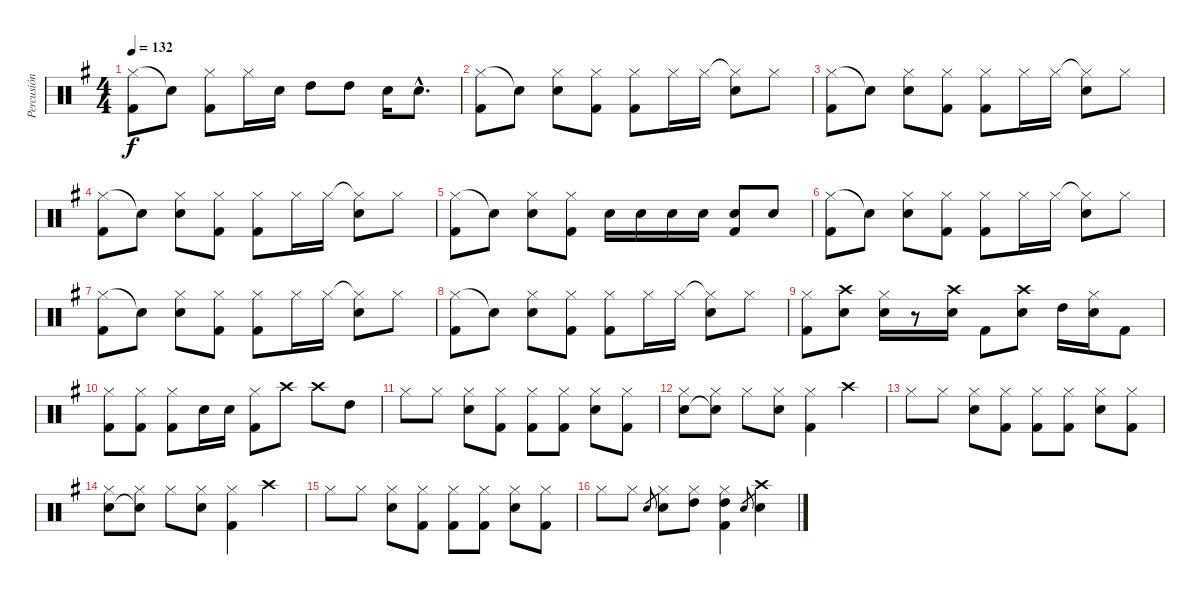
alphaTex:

\track ("Percusión" "Percusión") {instrument percussion}
\staff {score}
\articulation defaults
\ts (4 4)
\tempo 132
\clef neutral
\ks eminor
("Hi-Hat (closed)" "Kick (hit) 2").8{dy f} "Snare (hit)"{t}.8 ("Hi-Hat (closed)" "Kick (hit) 2").8 "Hi-Hat (closed)".16 "Electric Snare (hit)".16 "High Tom (hit)".8 "High Tom (hit)".8 "Electric Snare (hit)".16 "Electric Snare (hit)"{hac}.8{d} |
("Hi-Hat (closed)" "Kick (hit) 2").8 "Snare (hit)"{t}.8 ("Hi-Hat (closed)" "Electric Snare (hit)").8 ("Hi-Hat (closed)" "Kick (hit) 2").8 ("Hi-Hat (closed)" "Kick (hit) 2").8 "Hi-Hat (closed)".16 "Hi-Hat (closed)".16 ("Hi-Hat (closed)"{t} "Electric Snare (hit)").8 "Hi-Hat (closed)".8 |
("Hi-Hat (closed)" "Kick (hit) 2").8 "Snare (hit)"{t}.8 ("Hi-Hat (closed)" "Electric Snare (hit)").8 ("Hi-Hat (closed)" "Kick (hit) 2").8 ("Hi-Hat (closed)" "Kick (hit) 2").8 "Hi-Hat (closed)".16 "Hi-Hat (closed)".16 ("Hi-Hat (closed)"{t} "Electric Snare (hit)").8 "Hi-Hat (closed)".8 |
("Hi-Hat (closed)" "Kick (hit) 2").8 "Snare (hit)"{t}.8 ("Hi-Hat (closed)" "Electric Snare (hit)").8 ("Hi-Hat (closed)" "Kick (hit) 2").8 ("Hi-Hat (closed)" "Kick (hit) 2").8 "Hi-Hat (closed)".16 "Hi-Hat (closed)".16 ("Hi-Hat (closed)"{t} "Electric Snare (hit)").8 "Hi-Hat (closed)".8 |
("Hi-Hat (closed)" "Kick (hit) 2").8 "Snare (hit)"{t}.8 ("Hi-Hat (closed)" "Electric Snare (hit)").8 ("Hi-Hat (closed)" "Kick (hit) 2").8 "Electric Snare (hit)".16 "Electric Snare (hit)".16 "Electric Snare (hit)".16 "Electric Snare (hit)".16 ("Electric Snare (hit)" "Kick (hit) 2").8 "Electric Snare (hit)".8 |
("Hi-Hat (closed)" "Kick (hit) 2").8 "Snare (hit)"{t}.8 ("Hi-Hat (closed)" "Electric Snare (hit)").8 ("Hi-Hat (closed)" "Kick (hit) 2").8 ("Hi-Hat (closed)" "Kick (hit) 2").8 "Hi-Hat (closed)".16 "Hi-Hat (closed)".16 ("Hi-Hat (closed)"{t} "Electric Snare (hit)").8 "Hi-Hat (closed)".8 |
("Hi-Hat (closed)" "Kick (hit) 2").8 "Snare (hit)"{t}.8 ("Hi-Hat (closed)" "Electric Snare (hit)").8 ("Hi-Hat (closed)" "Kick (hit) 2").8 ("Hi-Hat (closed)" "Kick (hit) 2").8 "Hi-Hat (closed)".16 "Hi-Hat (closed)".16 ("Hi-Hat (closed)"{t} "Electric Snare (hit)").8 "Hi-Hat (closed)".8 |
("Hi-Hat (closed)" "Kick (hit) 2").8 "Snare (hit)"{t}.8 ("Hi-Hat (closed)" "Electric Snare (hit)").8 ("Hi-Hat (closed)" "Kick (hit) 2").8 ("Hi-Hat (closed)" "Kick (hit) 2").8 "Hi-Hat (closed)".16 "Hi-Hat (closed)".16 ("Hi-Hat (closed)"{t} "Electric Snare (hit)").8 "Hi-Hat (closed)".8 |
("Hi-Hat (closed)" "Kick (hit) 2").8 ("Crash high (hit)" "Electric Snare (hit)").8 ("Hi-Hat (closed)" "Electric Snare (hit)").16 r.8 ("Crash high (hit)" "Electric Snare (hit)").16 "Kick (hit) 2".8 ("Crash high (hit)" "Electric Snare (hit)").8 "High Tom (hit)".16 ("Hi-Hat (closed)" "Electric Snare (hit)").16 "Kick (hit) 2".8 |
("Hi-Hat (closed)" "Kick (hit) 2").8 ("Hi-Hat (closed)" "Kick (hit) 2").8 ("Hi-Hat (closed)" "Kick (hit) 2").8 "Electric Snare (hit)".16 "Electric Snare (hit)".16 ("Hi-Hat (closed)" "Kick (hit) 2").8 "Crash high (hit)".8 "Crash high (hit)".8 "High Tom (hit)".8 |
"Hi-Hat (closed)".8 "Hi-Hat (closed)".8 ("Hi-Hat (closed)" "Electric Snare (hit)").8 ("Hi-Hat (closed)" "Kick (hit) 2").8 ("Hi-Hat (closed)" "Kick (hit) 2").8 ("Hi-Hat (closed)" "Kick (hit) 2").8 ("Hi-Hat (closed)" "Electric Snare (hit)").8 ("Hi-Hat (closed)" "Kick (hit) 2").8 |
("Hi-Hat (closed)" "Electric Snare (hit)").8 ("Hi-Hat (closed)" "Snare (hit)"{t}).8 "Hi-Hat (closed)".8 ("Hi-Hat (closed)" "Electric Snare (hit)").8 ("Hi-Hat (closed)" "Kick (hit) 2").4 "Crash high (hit)".4 |
"Hi-Hat (closed)".8 "Hi-Hat (closed)".8 ("Hi-Hat (closed)" "Electric Snare (hit)").8 ("Hi-Hat (closed)" "Kick (hit) 2").8 ("Hi-Hat (closed)" "Kick (hit) 2").8 ("Hi-Hat (closed)" "Kick (hit) 2").8 ("Hi-Hat (closed)" "Electric Snare (hit)").8 ("Hi-Hat (closed)" "Kick (hit) 2").8 |
("Hi-Hat (closed)" "Electric Snare (hit)").8 ("Hi-Hat (closed)" "Snare (hit)"{t}).8 "Hi-Hat (closed)".8 ("Hi-Hat (closed)" "Electric Snare (hit)").8 ("Hi-Hat (closed)" "Kick (hit) 2").4 "Crash high (hit)".4 |
"Hi-Hat (closed)".8 "Hi-Hat (closed)".8 ("Hi-Hat (closed)" "Electric Snare (hit)").8 ("Hi-Hat (closed)" "Kick (hit) 2").8 ("Hi-Hat (closed)" "Kick (hit) 2").8 ("Hi-Hat (closed)" "Kick (hit) 2").8 ("Hi-Hat (closed)" "Electric Snare (hit)").8 ("Hi-Hat (closed)" "Kick (hit) 2").8 |
"Hi-Hat (closed)".8 "Hi-Hat (closed)".8 "Electric Snare (hit)".8{gr} ("Hi-Hat (closed)" "Electric Snare (hit)").8 ("Hi-Hat (closed)" "High Tom (hit)").8 ("Hi-Hat (closed)" "High Tom (hit)" "Kick (hit) 2").4 "Electric Snare (hit)".8{gr} ("Crash high (hit)" "Electric Snare (hit)").4
